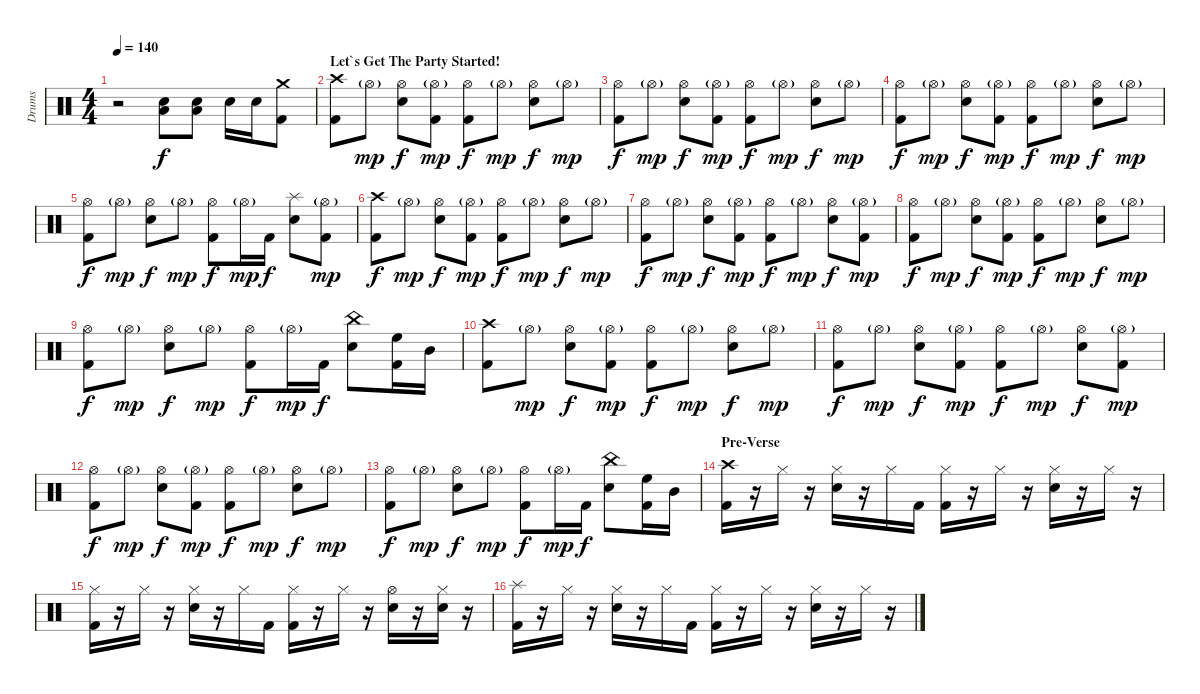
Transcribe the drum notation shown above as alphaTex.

\track ("Drums" "Drums") {instrument percussion}
\staff {score}
\articulation defaults
\ts (4 4)
\tempo 140
\clef neutral
\ks c
r.2{dy mp} ("Electric Snare (hit)" "Low Floor Tom (hit)").8{dy f} ("Electric Snare (hit)" "Low Floor Tom (hit)").8 "Electric Snare (hit)".16 "Electric Snare (hit)".16 ("Crash medium (hit)" "Kick (hit) 2").8 |
\section ("" "Let`s Get The Party Started!")
("Crash high (hit)" "Kick (hit) 2").8 "Hi-Hat (open)"{g}.8{dy mp} ("Hi-Hat (open)" "Electric Snare (hit)").8{dy f} ("Hi-Hat (open)"{g} "Kick (hit) 2").8{dy mp} ("Hi-Hat (open)" "Kick (hit) 2").8{dy f} "Hi-Hat (open)"{g}.8{dy mp} ("Hi-Hat (open)" "Electric Snare (hit)").8{dy f} "Hi-Hat (open)"{g}.8{dy mp} |
("Hi-Hat (open)" "Kick (hit) 2").8{dy f} "Hi-Hat (open)"{g}.8{dy mp} ("Hi-Hat (open)" "Electric Snare (hit)").8{dy f} ("Hi-Hat (open)"{g} "Kick (hit) 2").8{dy mp} ("Hi-Hat (open)" "Kick (hit) 2").8{dy f} "Hi-Hat (open)"{g}.8{dy mp} ("Hi-Hat (open)" "Electric Snare (hit)").8{dy f} "Hi-Hat (open)"{g}.8{dy mp} |
("Hi-Hat (open)" "Kick (hit) 2").8{dy f} "Hi-Hat (open)"{g}.8{dy mp} ("Hi-Hat (open)" "Electric Snare (hit)").8{dy f} ("Hi-Hat (open)"{g} "Kick (hit) 2").8{dy mp} ("Hi-Hat (open)" "Kick (hit) 2").8{dy f} "Hi-Hat (open)"{g}.8{dy mp} ("Hi-Hat (open)" "Electric Snare (hit)").8{dy f} "Hi-Hat (open)"{g}.8{dy mp} |
("Hi-Hat (open)" "Kick (hit) 2").8{dy f} "Hi-Hat (open)"{g}.8{dy mp} ("Hi-Hat (open)" "Electric Snare (hit)").8{dy f} "Hi-Hat (open)"{g}.8{dy mp} ("Hi-Hat (open)" "Kick (hit) 2").8{dy f} "Hi-Hat (open)"{g}.16{dy mp} "Kick (hit) 2".16{dy f} ("Splash (hit)" "Electric Snare (hit)").8 ("Hi-Hat (open)"{g} "Kick (hit) 2").8{dy mp} |
("Crash high (hit)" "Kick (hit) 2").8{dy f} "Hi-Hat (open)"{g}.8{dy mp} ("Hi-Hat (open)" "Electric Snare (hit)").8{dy f} ("Hi-Hat (open)"{g} "Kick (hit) 2").8{dy mp} ("Hi-Hat (open)" "Kick (hit) 2").8{dy f} "Hi-Hat (open)"{g}.8{dy mp} ("Hi-Hat (open)" "Electric Snare (hit)").8{dy f} "Hi-Hat (open)"{g}.8{dy mp} |
("Hi-Hat (open)" "Kick (hit) 2").8{dy f} "Hi-Hat (open)"{g}.8{dy mp} ("Hi-Hat (open)" "Electric Snare (hit)").8{dy f} ("Hi-Hat (open)"{g} "Kick (hit) 2").8{dy mp} ("Hi-Hat (open)" "Kick (hit) 2").8{dy f} "Hi-Hat (open)"{g}.8{dy mp} ("Hi-Hat (open)" "Electric Snare (hit)").8{dy f} ("Hi-Hat (open)"{g} "Kick (hit) 2").8{dy mp} |
("Hi-Hat (open)" "Kick (hit) 2").8{dy f} "Hi-Hat (open)"{g}.8{dy mp} ("Hi-Hat (open)" "Electric Snare (hit)").8{dy f} ("Hi-Hat (open)"{g} "Kick (hit) 2").8{dy mp} ("Hi-Hat (open)" "Kick (hit) 2").8{dy f} "Hi-Hat (open)"{g}.8{dy mp} ("Hi-Hat (open)" "Electric Snare (hit)").8{dy f} "Hi-Hat (open)"{g}.8{dy mp} |
("Hi-Hat (open)" "Kick (hit) 2").8{dy f} "Hi-Hat (open)"{g}.8{dy mp} ("Hi-Hat (open)" "Electric Snare (hit)").8{dy f} "Hi-Hat (open)"{g}.8{dy mp} ("Hi-Hat (open)" "Kick (hit) 2").8{dy f} "Hi-Hat (open)"{g}.16{dy mp} "Kick (hit) 2".16{dy f} ("China (hit)" "Electric Snare (hit)").8 ("High Floor Tom (hit)" "Kick (hit) 2").16 "Mid Tom (hit)".16 |
("Crash high (hit)" "Kick (hit) 2").8 "Hi-Hat (open)"{g}.8{dy mp} ("Hi-Hat (open)" "Electric Snare (hit)").8{dy f} ("Hi-Hat (open)"{g} "Kick (hit) 2").8{dy mp} ("Hi-Hat (open)" "Kick (hit) 2").8{dy f} "Hi-Hat (open)"{g}.8{dy mp} ("Hi-Hat (open)" "Electric Snare (hit)").8{dy f} "Hi-Hat (open)"{g}.8{dy mp} |
("Hi-Hat (open)" "Kick (hit) 2").8{dy f} "Hi-Hat (open)"{g}.8{dy mp} ("Hi-Hat (open)" "Electric Snare (hit)").8{dy f} ("Hi-Hat (open)"{g} "Kick (hit) 2").8{dy mp} ("Hi-Hat (open)" "Kick (hit) 2").8{dy f} "Hi-Hat (open)"{g}.8{dy mp} ("Hi-Hat (open)" "Electric Snare (hit)").8{dy f} ("Hi-Hat (open)"{g} "Kick (hit) 2").8{dy mp} |
("Hi-Hat (open)" "Kick (hit) 2").8{dy f} "Hi-Hat (open)"{g}.8{dy mp} ("Hi-Hat (open)" "Electric Snare (hit)").8{dy f} ("Hi-Hat (open)"{g} "Kick (hit) 2").8{dy mp} ("Hi-Hat (open)" "Kick (hit) 2").8{dy f} "Hi-Hat (open)"{g}.8{dy mp} ("Hi-Hat (open)" "Electric Snare (hit)").8{dy f} "Hi-Hat (open)"{g}.8{dy mp} |
("Hi-Hat (open)" "Kick (hit) 2").8{dy f} "Hi-Hat (open)"{g}.8{dy mp} ("Hi-Hat (open)" "Electric Snare (hit)").8{dy f} "Hi-Hat (open)"{g}.8{dy mp} ("Hi-Hat (open)" "Kick (hit) 2").8{dy f} "Hi-Hat (open)"{g}.16{dy mp} "Kick (hit) 2".16{dy f} ("China (hit)" "Electric Snare (hit)").8 ("High Floor Tom (hit)" "Kick (hit) 2").16 "Mid Tom (hit)".16 |
\section ("" "Pre-Verse")
("Crash high (hit)" "Kick (hit) 2").16 r.16 "Hi-Hat (closed)".16 r.16 ("Hi-Hat (closed)" "Electric Snare (hit)").16 r.16 "Hi-Hat (closed)".16 "Kick (hit) 2".16 ("Hi-Hat (closed)" "Kick (hit) 2").16 r.16 "Hi-Hat (closed)".16 r.16 ("Hi-Hat (closed)" "Electric Snare (hit)").16 r.16 "Hi-Hat (closed)".16 r.16 |
("Hi-Hat (closed)" "Kick (hit) 2").16 r.16 "Hi-Hat (closed)".16 r.16 ("Hi-Hat (closed)" "Electric Snare (hit)").16 r.16 "Hi-Hat (closed)".16 "Kick (hit) 2".16 ("Hi-Hat (closed)" "Kick (hit) 2").16 r.16 "Hi-Hat (closed)".16 r.16 ("Hi-Hat (open)" "Electric Snare (hit)").16 r.16 ("Hi-Hat (closed)" "Electric Snare (hit)").16 r.16 |
("Splash (hit)" "Kick (hit) 2").16 r.16 "Hi-Hat (closed)".16 r.16 ("Hi-Hat (closed)" "Electric Snare (hit)").16 r.16 "Hi-Hat (closed)".16 "Kick (hit) 2".16 ("Hi-Hat (closed)" "Kick (hit) 2").16 r.16 "Hi-Hat (closed)".16 r.16 ("Hi-Hat (closed)" "Electric Snare (hit)").16 r.16 "Hi-Hat (closed)".16 r.16
